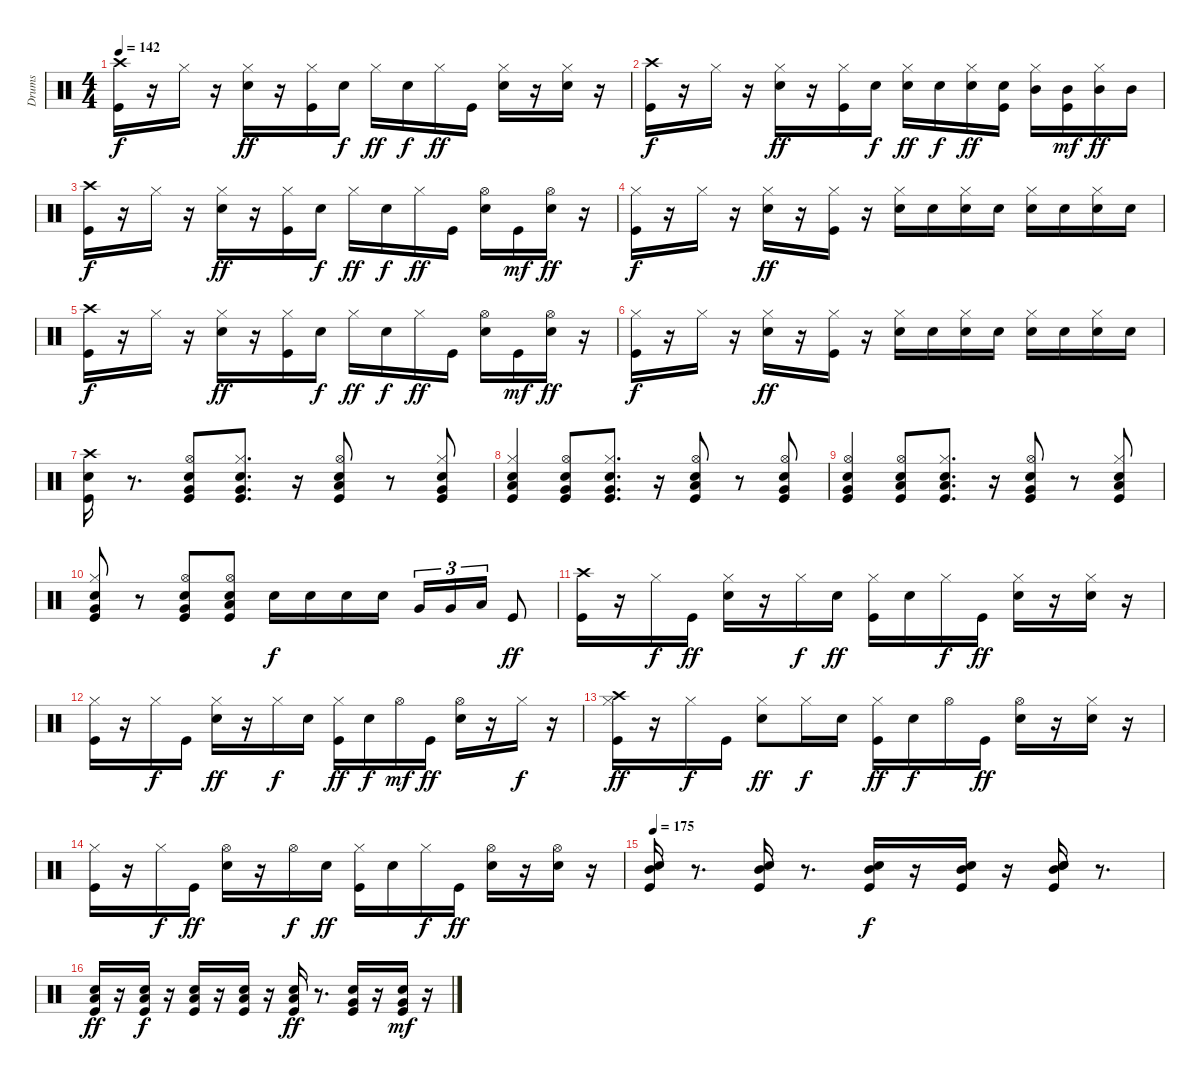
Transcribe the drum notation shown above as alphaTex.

\track ("Drums" "Drums") {instrument percussion}
\staff {score}
\articulation defaults
\ts (4 4)
\tempo 142
\clef neutral
\ks c
("Crash high (hit)" "Kick (hit)").16{dy f} r.16 "Hi-Hat (closed)".16 r.16 ("Electric Snare (hit)" "Hi-Hat (closed)").16{dy ff} r.16 ("Kick (hit)" "Hi-Hat (closed)").16 "Electric Snare (hit)".16{dy f} "Hi-Hat (closed)".16{dy ff} "Electric Snare (hit)".16{dy f} "Hi-Hat (closed)".16{dy ff} "Kick (hit)".16 ("Hi-Hat (closed)" "Electric Snare (hit)").16 r.16 ("Hi-Hat (closed)" "Electric Snare (hit)").16 r.16 |
("Crash high (hit)" "Kick (hit)").16{dy f} r.16 "Hi-Hat (closed)".16 r.16 ("Electric Snare (hit)" "Hi-Hat (closed)").16{dy ff} r.16 ("Kick (hit)" "Hi-Hat (closed)").16 "Electric Snare (hit)".16{dy f} ("Electric Snare (hit)" "Hi-Hat (closed)").16{dy ff} "Electric Snare (hit)".16{dy f} ("Electric Snare (hit)" "Hi-Hat (closed)").16{dy ff} ("Electric Snare (hit)" "Kick (hit)").16 ("Hi-Hat (closed)" "Mid Tom (hit)").16 ("Mid Tom (hit)" "Kick (hit)").16{dy mf} ("Hi-Hat (closed)" "Mid Tom (hit)").16{dy ff} "Mid Tom (hit)".16 |
("Crash high (hit)" "Kick (hit)").16{dy f} r.16 "Hi-Hat (closed)".16 r.16 ("Electric Snare (hit)" "Hi-Hat (closed)").16{dy ff} r.16 ("Kick (hit)" "Hi-Hat (closed)").16 "Electric Snare (hit)".16{dy f} "Hi-Hat (closed)".16{dy ff} "Electric Snare (hit)".16{dy f} "Hi-Hat (closed)".16{dy ff} "Kick (hit)".16 ("Hi-Hat (open)" "Electric Snare (hit)").16 "Kick (hit)".16{dy mf} ("Hi-Hat (open)" "Electric Snare (hit)").16{dy ff} r.16 |
("Hi-Hat (closed)" "Kick (hit)").16{dy f} r.16 "Hi-Hat (closed)".16 r.16 ("Electric Snare (hit)" "Hi-Hat (closed)").16{dy ff} r.16 ("Kick (hit)" "Hi-Hat (closed)").16 r.16 ("Electric Snare (hit)" "Hi-Hat (closed)").16 "Electric Snare (hit)".16 ("Electric Snare (hit)" "Hi-Hat (closed)").16 "Electric Snare (hit)".16 ("Hi-Hat (closed)" "Electric Snare (hit)").16 "Electric Snare (hit)".16 ("Hi-Hat (closed)" "Electric Snare (hit)").16 "Electric Snare (hit)".16 |
("Crash high (hit)" "Kick (hit)").16{dy f} r.16 "Hi-Hat (closed)".16 r.16 ("Electric Snare (hit)" "Hi-Hat (closed)").16{dy ff} r.16 ("Kick (hit)" "Hi-Hat (closed)").16 "Electric Snare (hit)".16{dy f} "Hi-Hat (closed)".16{dy ff} "Electric Snare (hit)".16{dy f} "Hi-Hat (closed)".16{dy ff} "Kick (hit)".16 ("Hi-Hat (open)" "Electric Snare (hit)").16 "Kick (hit)".16{dy mf} ("Hi-Hat (open)" "Electric Snare (hit)").16{dy ff} r.16 |
("Hi-Hat (closed)" "Kick (hit)").16{dy f} r.16 "Hi-Hat (closed)".16 r.16 ("Electric Snare (hit)" "Hi-Hat (closed)").16{dy ff} r.16 ("Kick (hit)" "Hi-Hat (closed)").16 r.16 ("Electric Snare (hit)" "Hi-Hat (closed)").16 "Electric Snare (hit)".16 ("Electric Snare (hit)" "Hi-Hat (closed)").16 "Electric Snare (hit)".16 ("Hi-Hat (closed)" "Electric Snare (hit)").16 "Electric Snare (hit)".16 ("Hi-Hat (closed)" "Electric Snare (hit)").16 "Electric Snare (hit)".16 |
("Crash high (hit)" "Kick (hit)" "Electric Snare (hit)").16 r.8{d} ("Very Low Tom (hit)" "Hi-Hat (open)" "Electric Snare (hit)" "Kick (hit)").8 ("Very Low Tom (hit)" "Electric Snare (hit)" "Kick (hit)" "Hi-Hat (closed)").8{d} r.16 ("Low Floor Tom (hit)" "Kick (hit)" "Electric Snare (hit)" "Hi-Hat (open)").8 r.8 ("Very Low Tom (hit)" "Hi-Hat (closed)" "Electric Snare (hit)" "Kick (hit)").8 |
("Low Floor Tom (hit)" "Kick (hit)" "Electric Snare (hit)" "Hi-Hat (closed)").4 ("Very Low Tom (hit)" "Hi-Hat (open)" "Kick (hit)" "Electric Snare (hit)").8 ("Very Low Tom (hit)" "Electric Snare (hit)" "Kick (hit)" "Hi-Hat (closed)").8{d} r.16 ("Low Floor Tom (hit)" "Electric Snare (hit)" "Hi-Hat (open)" "Kick (hit)").8 r.8 ("Very Low Tom (hit)" "Hi-Hat (open)" "Electric Snare (hit)" "Kick (hit)").8 |
("Very Low Tom (hit)" "Kick (hit)" "Hi-Hat (open)" "Electric Snare (hit)").4 ("Low Floor Tom (hit)" "Hi-Hat (open)" "Electric Snare (hit)" "Kick (hit)").8 ("Low Floor Tom (hit)" "Hi-Hat (closed)" "Electric Snare (hit)" "Kick (hit)").8{d} r.16 ("Very Low Tom (hit)" "Hi-Hat (open)" "Kick (hit)" "Electric Snare (hit)").8 r.8 ("Low Floor Tom (hit)" "Hi-Hat (closed)" "Electric Snare (hit)" "Kick (hit)").8 |
("Very Low Tom (hit)" "Hi-Hat (closed)" "Electric Snare (hit)" "Kick (hit)").8 r.8 ("Very Low Tom (hit)" "Kick (hit)" "Hi-Hat (open)" "Electric Snare (hit)").8 ("Low Floor Tom (hit)" "Hi-Hat (open)" "Electric Snare (hit)" "Kick (hit)").8 "Electric Snare (hit)".16{dy f} "Electric Snare (hit)".16 "Electric Snare (hit)".16 "Electric Snare (hit)".16 "Very Low Tom (hit)".16{tu (3 2)} "Very Low Tom (hit)".16{tu (3 2)} "Low Floor Tom (hit)".16{tu (3 2)} "Kick (hit)".8{dy ff} |
("Kick (hit)" "Crash high (hit)").16 r.16 "Hi-Hat (closed)".16{dy f} "Kick (hit)".16{dy ff} ("Electric Snare (hit)" "Hi-Hat (closed)").16 r.16 "Hi-Hat (closed)".16{dy f} "Electric Snare (hit)".16{dy ff} ("Kick (hit)" "Hi-Hat (closed)").16 "Electric Snare (hit)".16 "Hi-Hat (closed)".16{dy f} "Kick (hit)".16{dy ff} ("Electric Snare (hit)" "Hi-Hat (closed)").16 r.16 ("Electric Snare (hit)" "Hi-Hat (closed)").16 r.16 |
("Kick (hit)" "Hi-Hat (closed)").16 r.16 "Hi-Hat (closed)".16{dy f} "Kick (hit)".16 ("Electric Snare (hit)" "Hi-Hat (closed)").16{dy ff} r.16 "Hi-Hat (closed)".16{dy f} "Electric Snare (hit)".16 ("Kick (hit)" "Hi-Hat (closed)").16{dy ff} "Electric Snare (hit)".16{dy f} "Hi-Hat (open)".16{dy mf} "Kick (hit)".16{dy ff} ("Electric Snare (hit)" "Hi-Hat (open)").16 r.16 "Hi-Hat (closed)".16{dy f} r.16 |
("Crash high (hit)" "Kick (hit)" "Hi-Hat (closed)").16{dy ff} r.16 "Hi-Hat (closed)".16{dy f} "Kick (hit)".16 ("Electric Snare (hit)" "Hi-Hat (closed)").8{dy ff} "Hi-Hat (closed)".16{dy f} "Electric Snare (hit)".16 ("Kick (hit)" "Hi-Hat (closed)").16{dy ff} "Electric Snare (hit)".16{dy f} "Hi-Hat (open)".16 "Kick (hit)".16{dy ff} ("Electric Snare (hit)" "Hi-Hat (open)").16 r.16 ("Electric Snare (hit)" "Hi-Hat (closed)").16 r.16 |
("Kick (hit)" "Hi-Hat (closed)").16 r.16 "Hi-Hat (closed)".16{dy f} "Kick (hit)".16{dy ff} ("Hi-Hat (open)" "Electric Snare (hit)").16 r.16 "Hi-Hat (open)".16{dy f} "Electric Snare (hit)".16{dy ff} ("Kick (hit)" "Hi-Hat (closed)").16 "Electric Snare (hit)".16 "Hi-Hat (closed)".16{dy f} "Kick (hit)".16{dy ff} ("Hi-Hat (open)" "Electric Snare (hit)").16 r.16 ("Electric Snare (hit)" "Hi-Hat (open)").16 r.16 |
\tempo 175
("Mid Tom (hit)" "Electric Snare (hit)" "Kick (hit)").16 r.8{d} ("Kick (hit)" "Mid Tom (hit)" "Electric Snare (hit)").16 r.8{d} ("Mid Tom (hit)" "Kick (hit)" "Electric Snare (hit)").16{dy f} r.16 ("Kick (hit)" "Electric Snare (hit)" "Mid Tom (hit)").16 r.16 ("Electric Snare (hit)" "Mid Tom (hit)" "Kick (hit)" "Snare (hit) 2").16 r.8{d} |
("Electric Snare (hit)" "Kick (hit)" "Low Tom (hit)").16{dy ff} r.16 ("Kick (hit)" "Electric Snare (hit)" "Low Tom (hit)").16{dy f} r.16 ("Kick (hit)" "Electric Snare (hit)" "Low Tom (hit)").16 r.16 ("Kick (hit)" "Electric Snare (hit)" "Low Tom (hit)").16 r.16 ("Kick (hit)" "Low Tom (hit)" "Electric Snare (hit)").16{dy ff} r.8{d} ("Kick (hit)" "Very Low Tom (hit)" "Electric Snare (hit)").16 r.16 ("Kick (hit)" "Very Low Tom (hit)" "Electric Snare (hit)").16{dy mf} r.16
